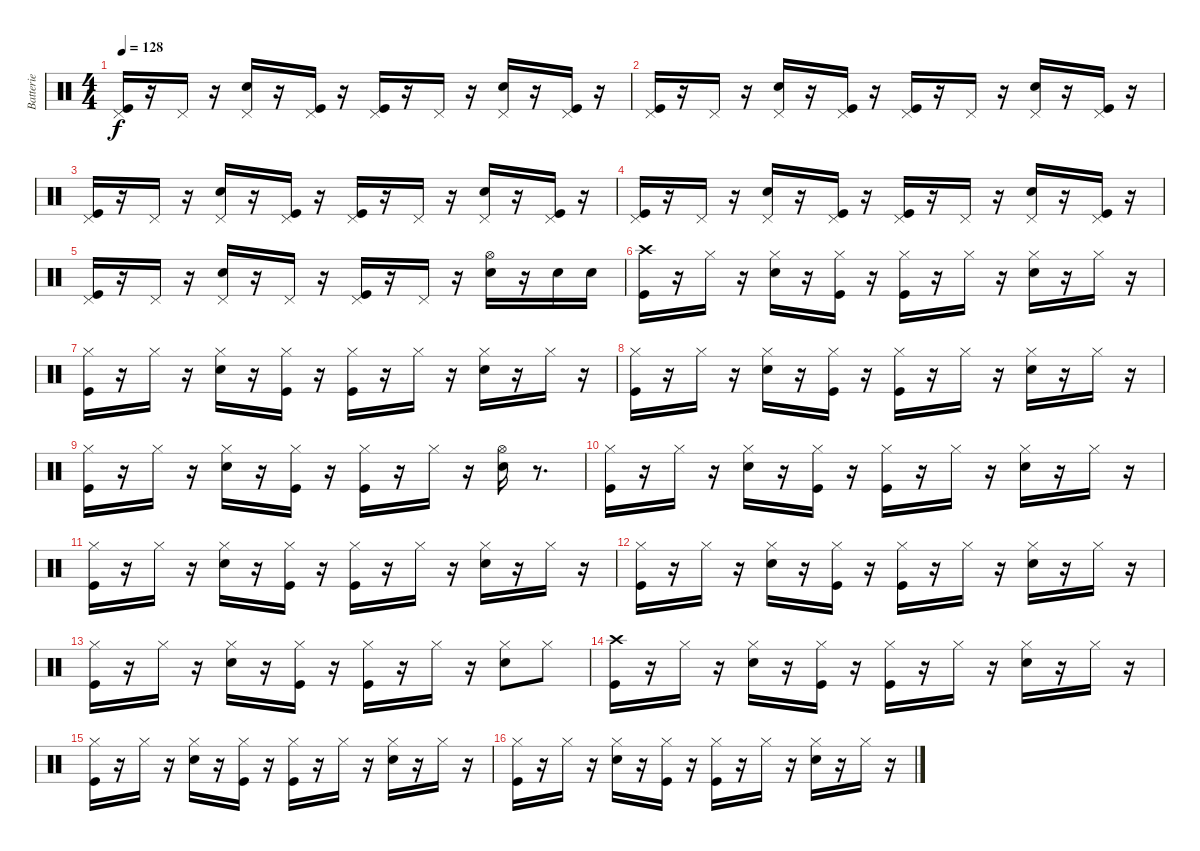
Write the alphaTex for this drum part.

\track ("Batterie" "Batterie") {instrument percussion}
\staff {score}
\articulation defaults
\ts (4 4)
\tempo 128
\clef neutral
\ks c
("Pedal Hi-Hat (hit)" "Kick (hit)").16{dy f} r.16 "Pedal Hi-Hat (hit)".16 r.16 ("Pedal Hi-Hat (hit)" "Snare (hit) 2").16 r.16 ("Pedal Hi-Hat (hit)" "Kick (hit)").16 r.16 ("Pedal Hi-Hat (hit)" "Kick (hit)").16 r.16 "Pedal Hi-Hat (hit)".16 r.16 ("Pedal Hi-Hat (hit)" "Snare (hit) 2").16 r.16 ("Pedal Hi-Hat (hit)" "Kick (hit)").16 r.16 |
("Pedal Hi-Hat (hit)" "Kick (hit)").16 r.16 "Pedal Hi-Hat (hit)".16 r.16 ("Pedal Hi-Hat (hit)" "Snare (hit) 2").16 r.16 ("Pedal Hi-Hat (hit)" "Kick (hit)").16 r.16 ("Pedal Hi-Hat (hit)" "Kick (hit)").16 r.16 "Pedal Hi-Hat (hit)".16 r.16 ("Pedal Hi-Hat (hit)" "Snare (hit) 2").16 r.16 ("Pedal Hi-Hat (hit)" "Kick (hit)").16 r.16 |
("Pedal Hi-Hat (hit)" "Kick (hit)").16 r.16 "Pedal Hi-Hat (hit)".16 r.16 ("Pedal Hi-Hat (hit)" "Snare (hit) 2").16 r.16 ("Pedal Hi-Hat (hit)" "Kick (hit)").16 r.16 ("Pedal Hi-Hat (hit)" "Kick (hit)").16 r.16 "Pedal Hi-Hat (hit)".16 r.16 ("Pedal Hi-Hat (hit)" "Snare (hit) 2").16 r.16 ("Pedal Hi-Hat (hit)" "Kick (hit)").16 r.16 |
("Pedal Hi-Hat (hit)" "Kick (hit)").16 r.16 "Pedal Hi-Hat (hit)".16 r.16 ("Pedal Hi-Hat (hit)" "Snare (hit) 2").16 r.16 ("Pedal Hi-Hat (hit)" "Kick (hit)").16 r.16 ("Pedal Hi-Hat (hit)" "Kick (hit)").16 r.16 "Pedal Hi-Hat (hit)".16 r.16 ("Pedal Hi-Hat (hit)" "Snare (hit) 2").16 r.16 ("Pedal Hi-Hat (hit)" "Kick (hit)").16 r.16 |
("Pedal Hi-Hat (hit)" "Kick (hit)").16 r.16 "Pedal Hi-Hat (hit)".16 r.16 ("Pedal Hi-Hat (hit)" "Snare (hit) 2").16 r.16 "Pedal Hi-Hat (hit)".16 r.16 ("Pedal Hi-Hat (hit)" "Kick (hit)").16 r.16 "Pedal Hi-Hat (hit)".16 r.16 ("Hi-Hat (open)" "Snare (hit) 2").16 r.16 "Snare (hit) 2".16 "Snare (hit) 2".16 |
("Crash high (hit)" "Kick (hit)").16 r.16 "Hi-Hat (closed)".16 r.16 ("Snare (hit) 2" "Hi-Hat (closed)").16 r.16 ("Kick (hit)" "Hi-Hat (closed)").16 r.16 ("Kick (hit)" "Hi-Hat (closed)").16 r.16 "Hi-Hat (closed)".16 r.16 ("Snare (hit) 2" "Hi-Hat (closed)").16 r.16 "Hi-Hat (closed)".16 r.16 |
("Kick (hit)" "Hi-Hat (closed)").16 r.16 "Hi-Hat (closed)".16 r.16 ("Snare (hit) 2" "Hi-Hat (closed)").16 r.16 ("Kick (hit)" "Hi-Hat (closed)").16 r.16 ("Kick (hit)" "Hi-Hat (closed)").16 r.16 "Hi-Hat (closed)".16 r.16 ("Snare (hit) 2" "Hi-Hat (closed)").16 r.16 "Hi-Hat (closed)".16 r.16 |
("Kick (hit)" "Hi-Hat (closed)").16 r.16 "Hi-Hat (closed)".16 r.16 ("Snare (hit) 2" "Hi-Hat (closed)").16 r.16 ("Kick (hit)" "Hi-Hat (closed)").16 r.16 ("Kick (hit)" "Hi-Hat (closed)").16 r.16 "Hi-Hat (closed)".16 r.16 ("Snare (hit) 2" "Hi-Hat (closed)").16 r.16 "Hi-Hat (closed)".16 r.16 |
("Kick (hit)" "Hi-Hat (closed)").16 r.16 "Hi-Hat (closed)".16 r.16 ("Snare (hit) 2" "Hi-Hat (closed)").16 r.16 ("Kick (hit)" "Hi-Hat (closed)").16 r.16 ("Kick (hit)" "Hi-Hat (closed)").16 r.16 "Hi-Hat (closed)".16 r.16 ("Hi-Hat (open)" "Snare (hit) 2").16 r.8{d} |
("Kick (hit)" "Hi-Hat (closed)").16 r.16 "Hi-Hat (closed)".16 r.16 ("Snare (hit) 2" "Hi-Hat (closed)").16 r.16 ("Kick (hit)" "Hi-Hat (closed)").16 r.16 ("Kick (hit)" "Hi-Hat (closed)").16 r.16 "Hi-Hat (closed)".16 r.16 ("Snare (hit) 2" "Hi-Hat (closed)").16 r.16 "Hi-Hat (closed)".16 r.16 |
("Kick (hit)" "Hi-Hat (closed)").16 r.16 "Hi-Hat (closed)".16 r.16 ("Snare (hit) 2" "Hi-Hat (closed)").16 r.16 ("Kick (hit)" "Hi-Hat (closed)").16 r.16 ("Kick (hit)" "Hi-Hat (closed)").16 r.16 "Hi-Hat (closed)".16 r.16 ("Snare (hit) 2" "Hi-Hat (closed)").16 r.16 "Hi-Hat (closed)".16 r.16 |
("Kick (hit)" "Hi-Hat (closed)").16 r.16 "Hi-Hat (closed)".16 r.16 ("Snare (hit) 2" "Hi-Hat (closed)").16 r.16 ("Kick (hit)" "Hi-Hat (closed)").16 r.16 ("Kick (hit)" "Hi-Hat (closed)").16 r.16 "Hi-Hat (closed)".16 r.16 ("Snare (hit) 2" "Hi-Hat (closed)").16 r.16 "Hi-Hat (closed)".16 r.16 |
("Kick (hit)" "Hi-Hat (closed)").16 r.16 "Hi-Hat (closed)".16 r.16 ("Snare (hit) 2" "Hi-Hat (closed)").16 r.16 ("Kick (hit)" "Hi-Hat (closed)").16 r.16 ("Kick (hit)" "Hi-Hat (closed)").16 r.16 "Hi-Hat (closed)".16 r.16 ("Hi-Hat (closed)" "Snare (hit) 2").8 "Hi-Hat (closed)".8 |
("Crash high (hit)" "Kick (hit)").16 r.16 "Hi-Hat (closed)".16 r.16 ("Snare (hit) 2" "Hi-Hat (closed)").16 r.16 ("Kick (hit)" "Hi-Hat (closed)").16 r.16 ("Kick (hit)" "Hi-Hat (closed)").16 r.16 "Hi-Hat (closed)".16 r.16 ("Snare (hit) 2" "Hi-Hat (closed)").16 r.16 "Hi-Hat (closed)".16 r.16 |
("Kick (hit)" "Hi-Hat (closed)").16 r.16 "Hi-Hat (closed)".16 r.16 ("Snare (hit) 2" "Hi-Hat (closed)").16 r.16 ("Kick (hit)" "Hi-Hat (closed)").16 r.16 ("Kick (hit)" "Hi-Hat (closed)").16 r.16 "Hi-Hat (closed)".16 r.16 ("Snare (hit) 2" "Hi-Hat (closed)").16 r.16 "Hi-Hat (closed)".16 r.16 |
("Kick (hit)" "Hi-Hat (closed)").16 r.16 "Hi-Hat (closed)".16 r.16 ("Snare (hit) 2" "Hi-Hat (closed)").16 r.16 ("Kick (hit)" "Hi-Hat (closed)").16 r.16 ("Kick (hit)" "Hi-Hat (closed)").16 r.16 "Hi-Hat (closed)".16 r.16 ("Snare (hit) 2" "Hi-Hat (closed)").16 r.16 "Hi-Hat (closed)".16 r.16
